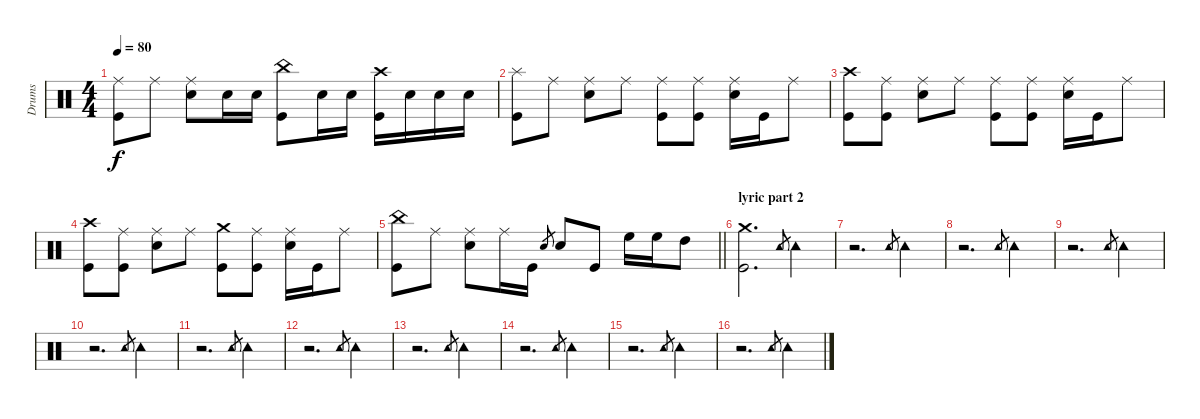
\track ("Drums" "Drums") {instrument percussion}
\staff {score}
\articulation defaults
\ts (4 4)
\tempo 80
\clef neutral
\ks c
("Kick (hit)" "Ride (middle)").8{dy f} "Ride (middle)".8 ("Snare (hit) 2" "Ride (middle)").8 "Snare (hit) 2".16 "Snare (hit) 2".16 ("Kick (hit)" "China (hit)").8 "Snare (hit) 2".16 "Snare (hit) 2".16 ("Kick (hit)" "Crash high (hit)").16 "Snare (hit) 2".16 "Snare (hit) 2".16 "Snare (hit) 2".16 |
("Kick (hit)" "Splash (hit)").8 "Ride (middle)".8 ("Snare (hit) 2" "Ride (middle)").8 "Ride (middle)".8 ("Kick (hit)" "Ride (middle)").8 ("Kick (hit)" "Ride (middle)").8 ("Snare (hit) 2" "Ride (middle)").16 "Kick (hit)".16 "Ride (middle)".8 |
("Kick (hit)" "Crash high (hit)").8 ("Ride (middle)" "Kick (hit)").8 ("Snare (hit) 2" "Ride (middle)").8 "Ride (middle)".8 ("Kick (hit)" "Ride (middle)").8 ("Kick (hit)" "Ride (middle)").8 ("Snare (hit) 2" "Ride (middle)").16 "Kick (hit)".16 "Ride (middle)".8 |
("Kick (hit)" "Crash high (hit)").8 ("Ride (middle)" "Kick (hit)").8 ("Snare (hit) 2" "Ride (middle)").8 "Ride (middle)".8 ("Kick (hit)" "Crash medium (hit)").8 ("Kick (hit)" "Ride (middle)").8 ("Snare (hit) 2" "Ride (middle)").16 "Kick (hit)".16 "Ride (middle)".8 |
\barLineRight lightlight
("Kick (hit)" "China (hit)").8 "Ride (middle)".8 ("Snare (hit) 2" "Ride (middle)").8 "Ride (middle)".16 "Kick (hit)".16 "Snare (hit) 2".8{gr} "Snare (hit) 2".8 "Kick (hit)".8 "High Floor Tom (hit)".16 "High Floor Tom (hit)".16 "High Tom (hit)".8 |
\section ("" "lyric part 2")
("Kick (hit)" "Crash medium (hit)").2{d} "Tambourine (hit)".8{gr} "Tambourine (hit)".4{volume 6} |
r.2{d} "Tambourine (hit)".8{gr} "Tambourine (hit)".4 |
r.2{d} "Tambourine (hit)".8{gr} "Tambourine (hit)".4 |
r.2{d} "Tambourine (hit)".8{gr} "Tambourine (hit)".4 |
r.2{d} "Tambourine (hit)".8{gr} "Tambourine (hit)".4 |
r.2{d} "Tambourine (hit)".8{gr} "Tambourine (hit)".4 |
r.2{d} "Tambourine (hit)".8{gr} "Tambourine (hit)".4 |
r.2{d} "Tambourine (hit)".8{gr} "Tambourine (hit)".4 |
r.2{d} "Tambourine (hit)".8{gr} "Tambourine (hit)".4 |
r.2{d} "Tambourine (hit)".8{gr} "Tambourine (hit)".4 |
r.2{d} "Tambourine (hit)".8{gr} "Tambourine (hit)".4
